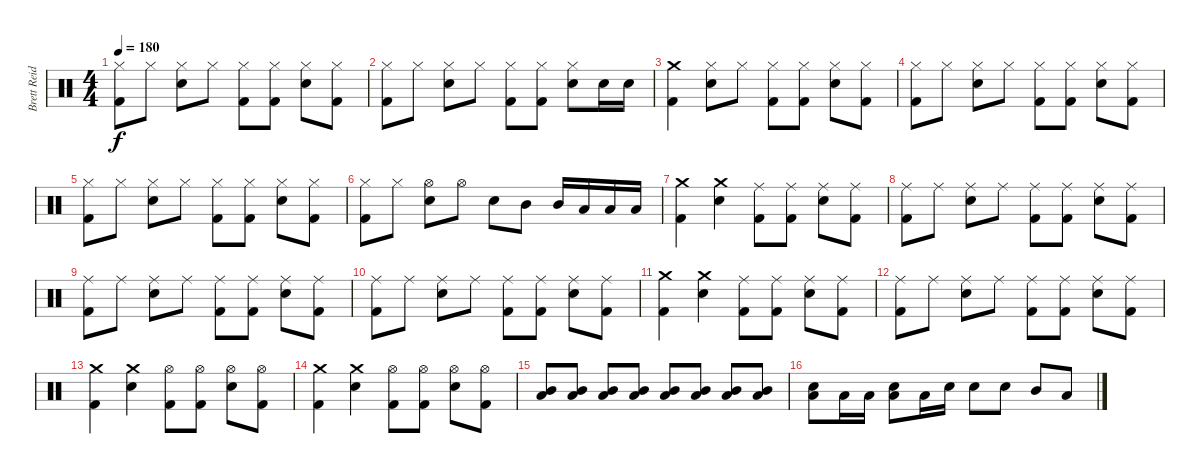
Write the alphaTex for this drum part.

\track ("Brett Reid" "Brett Reid") {instrument percussion}
\staff {score}
\articulation defaults
\ts (4 4)
\tempo 180
\clef neutral
\ks c
("Hi-Hat (closed)" "Kick (hit) 2").8{dy f} "Hi-Hat (closed)".8 ("Hi-Hat (closed)" "Snare (hit) 2").8 "Hi-Hat (closed)".8 ("Hi-Hat (closed)" "Kick (hit) 2").8 ("Hi-Hat (closed)" "Kick (hit) 2").8 ("Hi-Hat (closed)" "Snare (hit) 2").8 ("Hi-Hat (closed)" "Kick (hit) 2").8 |
("Hi-Hat (closed)" "Kick (hit) 2").8 "Hi-Hat (closed)".8 ("Hi-Hat (closed)" "Snare (hit) 2").8 "Hi-Hat (closed)".8 ("Hi-Hat (closed)" "Kick (hit) 2").8 ("Hi-Hat (closed)" "Kick (hit) 2").8 ("Hi-Hat (closed)" "Snare (hit) 2").8 "Snare (hit) 2".16 "Snare (hit) 2".16 |
("Crash medium (hit)" "Kick (hit) 2").4 ("Hi-Hat (closed)" "Snare (hit) 2").8 "Hi-Hat (closed)".8 ("Hi-Hat (closed)" "Kick (hit) 2").8 ("Hi-Hat (closed)" "Kick (hit) 2").8 ("Hi-Hat (closed)" "Snare (hit) 2").8 ("Hi-Hat (closed)" "Kick (hit) 2").8 |
("Hi-Hat (closed)" "Kick (hit) 2").8 "Hi-Hat (closed)".8 ("Hi-Hat (closed)" "Snare (hit) 2").8 "Hi-Hat (closed)".8 ("Hi-Hat (closed)" "Kick (hit) 2").8 ("Hi-Hat (closed)" "Kick (hit) 2").8 ("Hi-Hat (closed)" "Snare (hit) 2").8 ("Hi-Hat (closed)" "Kick (hit) 2").8 |
("Hi-Hat (closed)" "Kick (hit) 2").8 "Hi-Hat (closed)".8 ("Hi-Hat (closed)" "Snare (hit) 2").8 "Hi-Hat (closed)".8 ("Hi-Hat (closed)" "Kick (hit) 2").8 ("Hi-Hat (closed)" "Kick (hit) 2").8 ("Hi-Hat (closed)" "Snare (hit) 2").8 ("Hi-Hat (closed)" "Kick (hit) 2").8 |
("Hi-Hat (closed)" "Kick (hit) 2").8 "Hi-Hat (closed)".8 ("Hi-Hat (open)" "Snare (hit) 2").8 "Hi-Hat (open)".8 "Snare (hit) 2".8 "Mid Tom (hit)".8 "Mid Tom (hit)".16 "Low Floor Tom (hit)".16 "Low Floor Tom (hit)".16 "Low Floor Tom (hit)".16 |
("Crash medium (hit)" "Kick (hit) 2").4 ("Crash medium (hit)" "Snare (hit) 2").4 ("Ride (middle)" "Kick (hit) 2").8 ("Ride (middle)" "Kick (hit) 2").8 ("Ride (middle)" "Snare (hit) 2").8 ("Ride (middle)" "Kick (hit) 2").8 |
("Ride (middle)" "Kick (hit) 2").8 "Ride (middle)".8 ("Ride (middle)" "Snare (hit) 2").8 "Ride (middle)".8 ("Ride (middle)" "Kick (hit) 2").8 ("Ride (middle)" "Kick (hit) 2").8 ("Ride (middle)" "Snare (hit) 2").8 ("Ride (middle)" "Kick (hit) 2").8 |
("Ride (middle)" "Kick (hit) 2").8 "Ride (middle)".8 ("Ride (middle)" "Snare (hit) 2").8 "Ride (middle)".8 ("Ride (middle)" "Kick (hit) 2").8 ("Ride (middle)" "Kick (hit) 2").8 ("Ride (middle)" "Snare (hit) 2").8 ("Ride (middle)" "Kick (hit) 2").8 |
("Ride (middle)" "Kick (hit) 2").8 "Ride (middle)".8 ("Ride (middle)" "Snare (hit) 2").8 "Ride (middle)".8 ("Ride (middle)" "Kick (hit) 2").8 ("Ride (middle)" "Kick (hit) 2").8 ("Ride (middle)" "Snare (hit) 2").8 ("Ride (middle)" "Kick (hit) 2").8 |
("Crash medium (hit)" "Kick (hit) 2").4 ("Crash medium (hit)" "Snare (hit) 2").4 ("Ride (middle)" "Kick (hit) 2").8 ("Ride (middle)" "Kick (hit) 2").8 ("Ride (middle)" "Snare (hit) 2").8 ("Ride (middle)" "Kick (hit) 2").8 |
("Ride (middle)" "Kick (hit) 2").8 "Ride (middle)".8 ("Ride (middle)" "Snare (hit) 2").8 "Ride (middle)".8 ("Ride (middle)" "Kick (hit) 2").8 ("Ride (middle)" "Kick (hit) 2").8 ("Ride (middle)" "Snare (hit) 2").8 ("Ride (middle)" "Kick (hit) 2").8 |
("Crash medium (hit)" "Kick (hit) 2").4 ("Crash medium (hit)" "Snare (hit) 2").4 ("Hi-Hat (open)" "Kick (hit) 2").8 ("Hi-Hat (open)" "Kick (hit) 2").8 ("Hi-Hat (open)" "Snare (hit) 2").8 ("Hi-Hat (open)" "Kick (hit) 2").8 |
("Crash medium (hit)" "Kick (hit) 2").4 ("Crash medium (hit)" "Snare (hit) 2").4 ("Hi-Hat (open)" "Kick (hit) 2").8 ("Hi-Hat (open)" "Kick (hit) 2").8 ("Hi-Hat (open)" "Snare (hit) 2").8 ("Hi-Hat (open)" "Kick (hit) 2").8 |
("Low Floor Tom (hit)" "Mid Tom (hit)").8 ("Low Floor Tom (hit)" "Mid Tom (hit)").8 ("Low Floor Tom (hit)" "Mid Tom (hit)").8 ("Low Floor Tom (hit)" "Mid Tom (hit)").8 ("Low Floor Tom (hit)" "Mid Tom (hit)").8 ("Low Floor Tom (hit)" "Mid Tom (hit)").8 ("Low Floor Tom (hit)" "Mid Tom (hit)").8 ("Low Floor Tom (hit)" "Mid Tom (hit)").8 |
("Low Floor Tom (hit)" "Snare (hit) 2").8 "Low Floor Tom (hit)".16 "Low Floor Tom (hit)".16 ("Low Floor Tom (hit)" "Snare (hit) 2").8 "Low Floor Tom (hit)".16 "Snare (hit) 2".16 "Snare (hit) 2".8 "Snare (hit) 2".8 "Mid Tom (hit)".8 "Low Floor Tom (hit)".8
